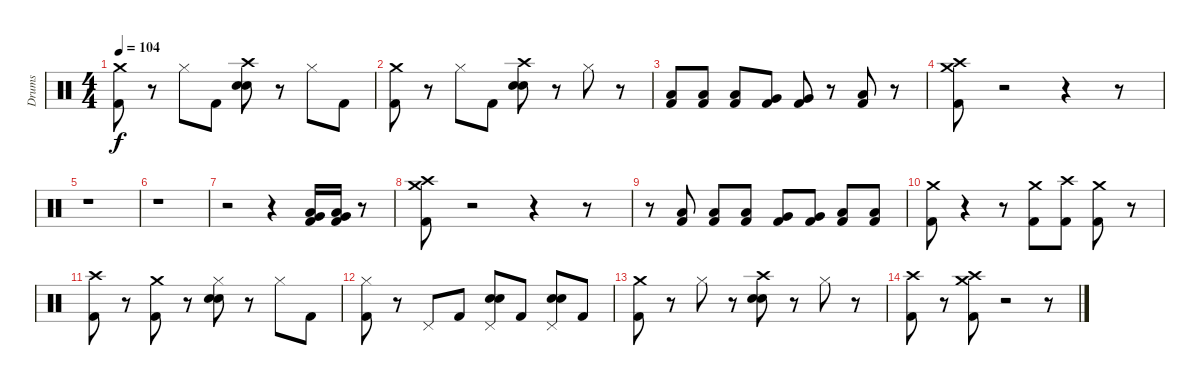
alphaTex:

\track ("Drums" "Drums") {instrument percussion}
\staff {score}
\articulation defaults
\ts (4 4)
\tempo 104
\clef neutral
\ks c
("Crash medium (hit)" "Kick (hit) 2").8{dy f} r.8 "Hi-Hat (closed)".8 "Kick (hit) 2".8 ("Crash high (hit)" "Electric Snare (hit)" "Snare (hit) 2").8 r.8 "Hi-Hat (closed)".8 "Kick (hit) 2".8 |
("Crash medium (hit)" "Kick (hit) 2").8 r.8 "Hi-Hat (closed)".8 "Kick (hit) 2".8 ("Crash high (hit)" "Electric Snare (hit)" "Snare (hit) 2").8 r.8 "Hi-Hat (closed)".8 r.8 |
("Low Tom (hit)" "Kick (hit) 2").8 ("Low Tom (hit)" "Kick (hit) 2").8 ("Low Tom (hit)" "Kick (hit) 2").8 ("Very Low Tom (hit)" "Kick (hit) 2").8 ("Very Low Tom (hit)" "Kick (hit) 2").8 r.8 ("Low Floor Tom (hit)" "Kick (hit) 2").8 r.8 |
("Crash high (hit)" "Crash medium (hit)" "Kick (hit) 2").8 r.2 r.4 r.8 |
r.1 |
r.1 |
r.2 r.4 ("Low Tom (hit)" "Very Low Tom (hit)" "Kick (hit) 2").16 ("Very Low Tom (hit)" "Low Floor Tom (hit)" "Kick (hit) 2").16 r.8 |
("Crash high (hit)" "Crash medium (hit)" "Kick (hit) 2").8 r.2 r.4 r.8 |
r.8 ("Low Tom (hit)" "Kick (hit) 2").8 ("Low Tom (hit)" "Kick (hit) 2").8 ("Low Tom (hit)" "Kick (hit) 2").8 ("Very Low Tom (hit)" "Kick (hit) 2").8 ("Very Low Tom (hit)" "Kick (hit) 2").8 ("Low Floor Tom (hit)" "Kick (hit) 2").8 ("Low Floor Tom (hit)" "Kick (hit) 2").8 |
("Crash medium (hit)" "Kick (hit) 2").8 r.4 r.8 ("Crash medium (hit)" "Kick (hit) 2").8 ("Crash high (hit)" "Kick (hit) 2").8 ("Crash medium (hit)" "Kick (hit) 2").8 r.8 |
("Crash high (hit)" "Kick (hit) 2").8 r.8 ("Kick (hit) 2" "Crash medium (hit)").8 r.8 ("Hi-Hat (closed)" "Snare (hit) 2" "Electric Snare (hit)").8 r.8 "Hi-Hat (closed)".8 "Kick (hit) 2".8 |
("Hi-Hat (closed)" "Kick (hit) 2").8 r.8 "Pedal Hi-Hat (hit)".8 "Kick (hit) 2".8 ("Pedal Hi-Hat (hit)" "Snare (hit) 2" "Electric Snare (hit)").8 "Kick (hit) 2".8 ("Pedal Hi-Hat (hit)" "Snare (hit) 2" "Electric Snare (hit)").8 "Kick (hit) 2".8 |
("Crash medium (hit)" "Kick (hit) 2").8 r.8 "Hi-Hat (closed)".8 r.8 ("Crash high (hit)" "Electric Snare (hit)" "Snare (hit) 2").8 r.8 "Hi-Hat (closed)".8 r.8 |
("Crash high (hit)" "Kick (hit) 2").8 r.8 ("Crash high (hit)" "Crash medium (hit)" "Kick (hit) 2").8 r.2 r.8
